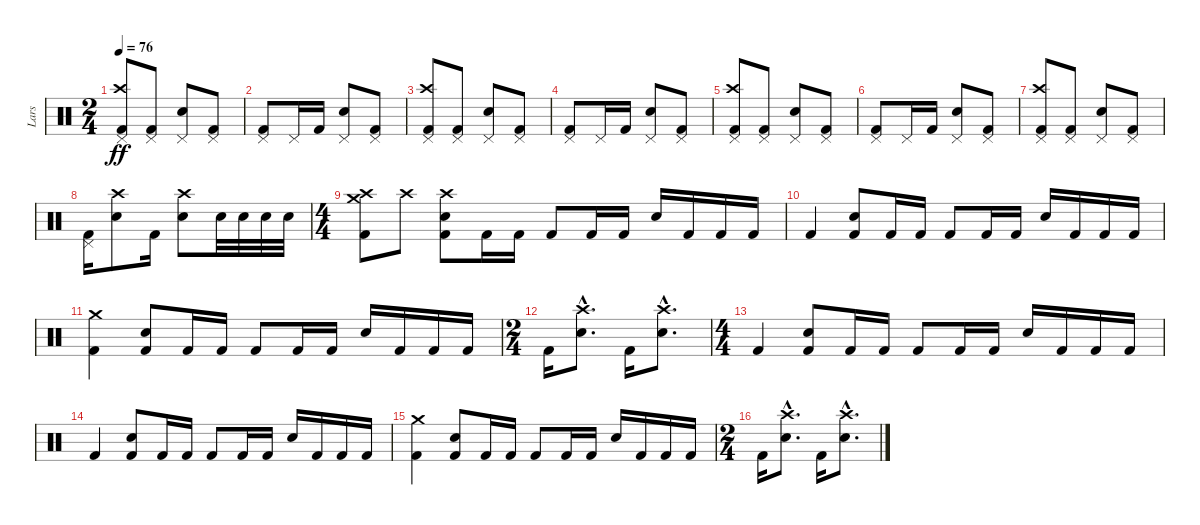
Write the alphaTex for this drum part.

\track ("Lars" "Lars") {instrument percussion}
\staff {score}
\articulation defaults
\ts (2 4)
\tempo 76
\clef neutral
\ks c
("Pedal Hi-Hat (hit)" "Crash high (hit)" "Kick (hit) 2").8{dy ff} ("Pedal Hi-Hat (hit)" "Kick (hit) 2").8 ("Pedal Hi-Hat (hit)" "Snare (hit) 2").8 ("Pedal Hi-Hat (hit)" "Kick (hit) 2").8 |
("Pedal Hi-Hat (hit)" "Kick (hit) 2").8 "Pedal Hi-Hat (hit)".16 "Kick (hit) 2".16 ("Pedal Hi-Hat (hit)" "Snare (hit) 2").8 ("Pedal Hi-Hat (hit)" "Kick (hit) 2").8 |
("Pedal Hi-Hat (hit)" "Crash high (hit)" "Kick (hit) 2").8 ("Pedal Hi-Hat (hit)" "Kick (hit) 2").8 ("Pedal Hi-Hat (hit)" "Snare (hit) 2").8 ("Pedal Hi-Hat (hit)" "Kick (hit) 2").8 |
("Pedal Hi-Hat (hit)" "Kick (hit) 2").8 "Pedal Hi-Hat (hit)".16 "Kick (hit) 2".16 ("Pedal Hi-Hat (hit)" "Snare (hit) 2").8 ("Pedal Hi-Hat (hit)" "Kick (hit) 2").8 |
("Pedal Hi-Hat (hit)" "Crash high (hit)" "Kick (hit) 2").8 ("Pedal Hi-Hat (hit)" "Kick (hit) 2").8 ("Pedal Hi-Hat (hit)" "Snare (hit) 2").8 ("Pedal Hi-Hat (hit)" "Kick (hit) 2").8 |
("Pedal Hi-Hat (hit)" "Kick (hit) 2").8 "Pedal Hi-Hat (hit)".16 "Kick (hit) 2".16 ("Pedal Hi-Hat (hit)" "Snare (hit) 2").8 ("Pedal Hi-Hat (hit)" "Kick (hit) 2").8 |
("Pedal Hi-Hat (hit)" "Crash high (hit)" "Kick (hit) 2").8 ("Pedal Hi-Hat (hit)" "Kick (hit) 2").8 ("Pedal Hi-Hat (hit)" "Snare (hit) 2").8 ("Pedal Hi-Hat (hit)" "Kick (hit) 2").8 |
("Pedal Hi-Hat (hit)" "Kick (hit) 2").16 ("Crash high (hit)" "Snare (hit) 2").8 "Kick (hit) 2".16 ("Crash high (hit)" "Snare (hit) 2").8 "Snare (hit) 2".32 "Snare (hit) 2".32 "Snare (hit) 2".32 "Snare (hit) 2".32 |
\ts (4 4)
("Crash medium (hit)" "Crash high (hit)" "Kick (hit) 2").8 "Crash high (hit)".8 ("Crash high (hit)" "Snare (hit) 2" "Kick (hit) 2").8 "Kick (hit) 2".16 "Kick (hit) 2".16 "Kick (hit) 2".8 "Kick (hit) 2".16 "Kick (hit) 2".16 "Snare (hit) 2".16 "Kick (hit) 2".16 "Kick (hit) 2".16 "Kick (hit) 2".16 |
"Kick (hit) 2".4 ("Snare (hit) 2" "Kick (hit) 2").8 "Kick (hit) 2".16 "Kick (hit) 2".16 "Kick (hit) 2".8 "Kick (hit) 2".16 "Kick (hit) 2".16 "Snare (hit) 2".16 "Kick (hit) 2".16 "Kick (hit) 2".16 "Kick (hit) 2".16 |
("Crash medium (hit)" "Kick (hit) 2").4 ("Snare (hit) 2" "Kick (hit) 2").8 "Kick (hit) 2".16 "Kick (hit) 2".16 "Kick (hit) 2".8 "Kick (hit) 2".16 "Kick (hit) 2".16 "Snare (hit) 2".16 "Kick (hit) 2".16 "Kick (hit) 2".16 "Kick (hit) 2".16 |
\ts (2 4)
"Kick (hit) 2".16 ("Crash high (hit)"{hac} "Snare (hit) 2"{hac}).8{d} "Kick (hit) 2".16 ("Crash high (hit)"{hac} "Snare (hit) 2"{hac}).8{d} |
\ts (4 4)
"Kick (hit) 2".4 ("Snare (hit) 2" "Kick (hit) 2").8 "Kick (hit) 2".16 "Kick (hit) 2".16 "Kick (hit) 2".8 "Kick (hit) 2".16 "Kick (hit) 2".16 "Snare (hit) 2".16 "Kick (hit) 2".16 "Kick (hit) 2".16 "Kick (hit) 2".16 |
"Kick (hit) 2".4 ("Snare (hit) 2" "Kick (hit) 2").8 "Kick (hit) 2".16 "Kick (hit) 2".16 "Kick (hit) 2".8 "Kick (hit) 2".16 "Kick (hit) 2".16 "Snare (hit) 2".16 "Kick (hit) 2".16 "Kick (hit) 2".16 "Kick (hit) 2".16 |
("Crash medium (hit)" "Kick (hit) 2").4 ("Snare (hit) 2" "Kick (hit) 2").8 "Kick (hit) 2".16 "Kick (hit) 2".16 "Kick (hit) 2".8 "Kick (hit) 2".16 "Kick (hit) 2".16 "Snare (hit) 2".16 "Kick (hit) 2".16 "Kick (hit) 2".16 "Kick (hit) 2".16 |
\ts (2 4)
"Kick (hit) 2".16 ("Crash high (hit)"{hac} "Snare (hit) 2"{hac}).8{d} "Kick (hit) 2".16 ("Crash high (hit)"{hac} "Snare (hit) 2"{hac}).8{d}
